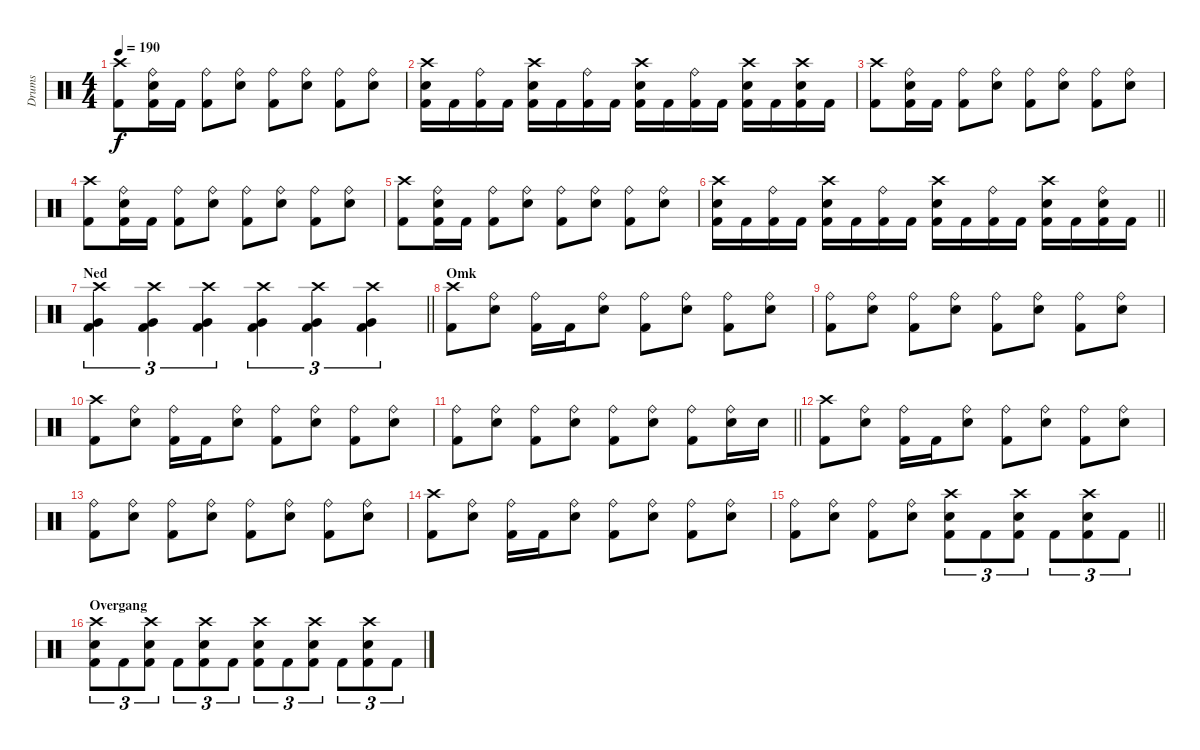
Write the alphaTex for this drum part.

\track ("Drums" "Drums") {instrument percussion}
\staff {score}
\articulation defaults
\ts (4 4)
\tempo 190
\clef neutral
\ks c
("Crash high (hit)" "Kick (hit) 2").8{dy f} ("Ride (bell)" "Snare (hit) 2" "Kick (hit) 2").16 "Kick (hit) 2".16 ("Ride (bell)" "Kick (hit) 2").8 ("Ride (bell)" "Snare (hit) 2").8 ("Ride (bell)" "Kick (hit) 2").8 ("Ride (bell)" "Snare (hit) 2").8 ("Ride (bell)" "Kick (hit) 2").8 ("Ride (bell)" "Snare (hit) 2").8 |
("Crash high (hit)" "Snare (hit) 2" "Kick (hit) 2").16 "Kick (hit) 2".16 ("Ride (bell)" "Kick (hit) 2").16 "Kick (hit) 2".16 ("Crash high (hit)" "Snare (hit) 2" "Kick (hit) 2").16 "Kick (hit) 2".16 ("Ride (bell)" "Kick (hit) 2").16 "Kick (hit) 2".16 ("Crash high (hit)" "Snare (hit) 2" "Kick (hit) 2").16 "Kick (hit) 2".16 ("Ride (bell)" "Kick (hit) 2").16 "Kick (hit) 2".16 ("Crash high (hit)" "Snare (hit) 2" "Kick (hit) 2").16 "Kick (hit) 2".16 ("Crash high (hit)" "Snare (hit) 2" "Kick (hit) 2").16 "Kick (hit) 2".16 |
("Crash high (hit)" "Kick (hit) 2").8 ("Ride (bell)" "Snare (hit) 2" "Kick (hit) 2").16 "Kick (hit) 2".16 ("Ride (bell)" "Kick (hit) 2").8 ("Ride (bell)" "Snare (hit) 2").8 ("Ride (bell)" "Kick (hit) 2").8 ("Ride (bell)" "Snare (hit) 2").8 ("Ride (bell)" "Kick (hit) 2").8 ("Ride (bell)" "Snare (hit) 2").8 |
("Crash high (hit)" "Kick (hit) 2").8 ("Ride (bell)" "Snare (hit) 2" "Kick (hit) 2").16 "Kick (hit) 2".16 ("Ride (bell)" "Kick (hit) 2").8 ("Ride (bell)" "Snare (hit) 2").8 ("Ride (bell)" "Kick (hit) 2").8 ("Ride (bell)" "Snare (hit) 2").8 ("Ride (bell)" "Kick (hit) 2").8 ("Ride (bell)" "Snare (hit) 2").8 |
("Crash high (hit)" "Kick (hit) 2").8 ("Ride (bell)" "Snare (hit) 2" "Kick (hit) 2").16 "Kick (hit) 2".16 ("Ride (bell)" "Kick (hit) 2").8 ("Ride (bell)" "Snare (hit) 2").8 ("Ride (bell)" "Kick (hit) 2").8 ("Ride (bell)" "Snare (hit) 2").8 ("Ride (bell)" "Kick (hit) 2").8 ("Ride (bell)" "Snare (hit) 2").8 |
\barLineRight lightlight
("Crash high (hit)" "Snare (hit) 2" "Kick (hit) 2").16 "Kick (hit) 2".16 ("Ride (bell)" "Kick (hit) 2").16 "Kick (hit) 2".16 ("Crash high (hit)" "Snare (hit) 2" "Kick (hit) 2").16 "Kick (hit) 2".16 ("Ride (bell)" "Kick (hit) 2").16 "Kick (hit) 2".16 ("Crash high (hit)" "Snare (hit) 2" "Kick (hit) 2").16 "Kick (hit) 2".16 ("Ride (bell)" "Kick (hit) 2").16 "Kick (hit) 2".16 ("Crash high (hit)" "Snare (hit) 2" "Kick (hit) 2").16 "Kick (hit) 2".16 ("Ride (bell)" "Snare (hit) 2" "Kick (hit) 2").16 "Kick (hit) 2".16 |
\section ("" "Ned")
\barLineRight lightlight
("Crash high (hit)" "Very Low Tom (hit)" "Kick (hit) 2").4{tu (3 2)} ("Crash high (hit)" "Very Low Tom (hit)" "Kick (hit) 2").4{tu (3 2)} ("Crash high (hit)" "Very Low Tom (hit)" "Kick (hit) 2").4{tu (3 2)} ("Crash high (hit)" "Very Low Tom (hit)" "Kick (hit) 2").4{tu (3 2)} ("Crash high (hit)" "Very Low Tom (hit)" "Kick (hit) 2").4{tu (3 2)} ("Crash high (hit)" "Very Low Tom (hit)" "Kick (hit) 2").4{tu (3 2)} |
\section ("" "Omk")
("Crash high (hit)" "Kick (hit) 2").8 ("Ride (bell)" "Snare (hit) 2").8 ("Ride (bell)" "Kick (hit) 2").16 "Kick (hit) 2".16 ("Ride (bell)" "Snare (hit) 2").8 ("Ride (bell)" "Kick (hit) 2").8 ("Ride (bell)" "Snare (hit) 2").8 ("Ride (bell)" "Kick (hit) 2").8 ("Ride (bell)" "Snare (hit) 2").8 |
("Ride (bell)" "Kick (hit) 2").8 ("Ride (bell)" "Snare (hit) 2").8 ("Ride (bell)" "Kick (hit) 2").8 ("Ride (bell)" "Snare (hit) 2").8 ("Ride (bell)" "Kick (hit) 2").8 ("Ride (bell)" "Snare (hit) 2").8 ("Ride (bell)" "Kick (hit) 2").8 ("Ride (bell)" "Snare (hit) 2").8 |
("Crash high (hit)" "Kick (hit) 2").8 ("Ride (bell)" "Snare (hit) 2").8 ("Ride (bell)" "Kick (hit) 2").16 "Kick (hit) 2".16 ("Ride (bell)" "Snare (hit) 2").8 ("Ride (bell)" "Kick (hit) 2").8 ("Ride (bell)" "Snare (hit) 2").8 ("Ride (bell)" "Kick (hit) 2").8 ("Ride (bell)" "Snare (hit) 2").8 |
\barLineRight lightlight
("Ride (bell)" "Kick (hit) 2").8 ("Ride (bell)" "Snare (hit) 2").8 ("Ride (bell)" "Kick (hit) 2").8 ("Ride (bell)" "Snare (hit) 2").8 ("Ride (bell)" "Kick (hit) 2").8 ("Ride (bell)" "Snare (hit) 2").8 ("Ride (bell)" "Kick (hit) 2").8 ("Ride (bell)" "Snare (hit) 2").16 "Snare (hit) 2".16 |
("Crash high (hit)" "Kick (hit) 2").8 ("Ride (bell)" "Snare (hit) 2").8 ("Ride (bell)" "Kick (hit) 2").16 "Kick (hit) 2".16 ("Ride (bell)" "Snare (hit) 2").8 ("Ride (bell)" "Kick (hit) 2").8 ("Ride (bell)" "Snare (hit) 2").8 ("Ride (bell)" "Kick (hit) 2").8 ("Ride (bell)" "Snare (hit) 2").8 |
("Ride (bell)" "Kick (hit) 2").8 ("Ride (bell)" "Snare (hit) 2").8 ("Ride (bell)" "Kick (hit) 2").8 ("Ride (bell)" "Snare (hit) 2").8 ("Ride (bell)" "Kick (hit) 2").8 ("Ride (bell)" "Snare (hit) 2").8 ("Ride (bell)" "Kick (hit) 2").8 ("Ride (bell)" "Snare (hit) 2").8 |
("Crash high (hit)" "Kick (hit) 2").8 ("Ride (bell)" "Snare (hit) 2").8 ("Ride (bell)" "Kick (hit) 2").16 "Kick (hit) 2".16 ("Ride (bell)" "Snare (hit) 2").8 ("Ride (bell)" "Kick (hit) 2").8 ("Ride (bell)" "Snare (hit) 2").8 ("Ride (bell)" "Kick (hit) 2").8 ("Ride (bell)" "Snare (hit) 2").8 |
\barLineRight lightlight
("Ride (bell)" "Kick (hit) 2").8 ("Ride (bell)" "Snare (hit) 2").8 ("Ride (bell)" "Kick (hit) 2").8 ("Ride (bell)" "Snare (hit) 2").8 ("Crash high (hit)" "Snare (hit) 2" "Kick (hit) 2").8{tu (3 2)} "Kick (hit) 2".8{tu (3 2)} ("Crash high (hit)" "Snare (hit) 2" "Kick (hit) 2").8{tu (3 2)} "Kick (hit) 2".8{tu (3 2)} ("Crash high (hit)" "Snare (hit) 2" "Kick (hit) 2").8{tu (3 2)} "Kick (hit) 2".8{tu (3 2)} |
\section ("" "Overgang")
("Crash high (hit)" "Snare (hit) 2" "Kick (hit) 2").8{tu (3 2)} "Kick (hit) 2".8{tu (3 2)} ("Crash high (hit)" "Snare (hit) 2" "Kick (hit) 2").8{tu (3 2)} "Kick (hit) 2".8{tu (3 2)} ("Crash high (hit)" "Snare (hit) 2" "Kick (hit) 2").8{tu (3 2)} "Kick (hit) 2".8{tu (3 2)} ("Crash high (hit)" "Snare (hit) 2" "Kick (hit) 2").8{tu (3 2)} "Kick (hit) 2".8{tu (3 2)} ("Crash high (hit)" "Snare (hit) 2" "Kick (hit) 2").8{tu (3 2)} "Kick (hit) 2".8{tu (3 2)} ("Crash high (hit)" "Snare (hit) 2" "Kick (hit) 2").8{tu (3 2)} "Kick (hit) 2".8{tu (3 2)}
